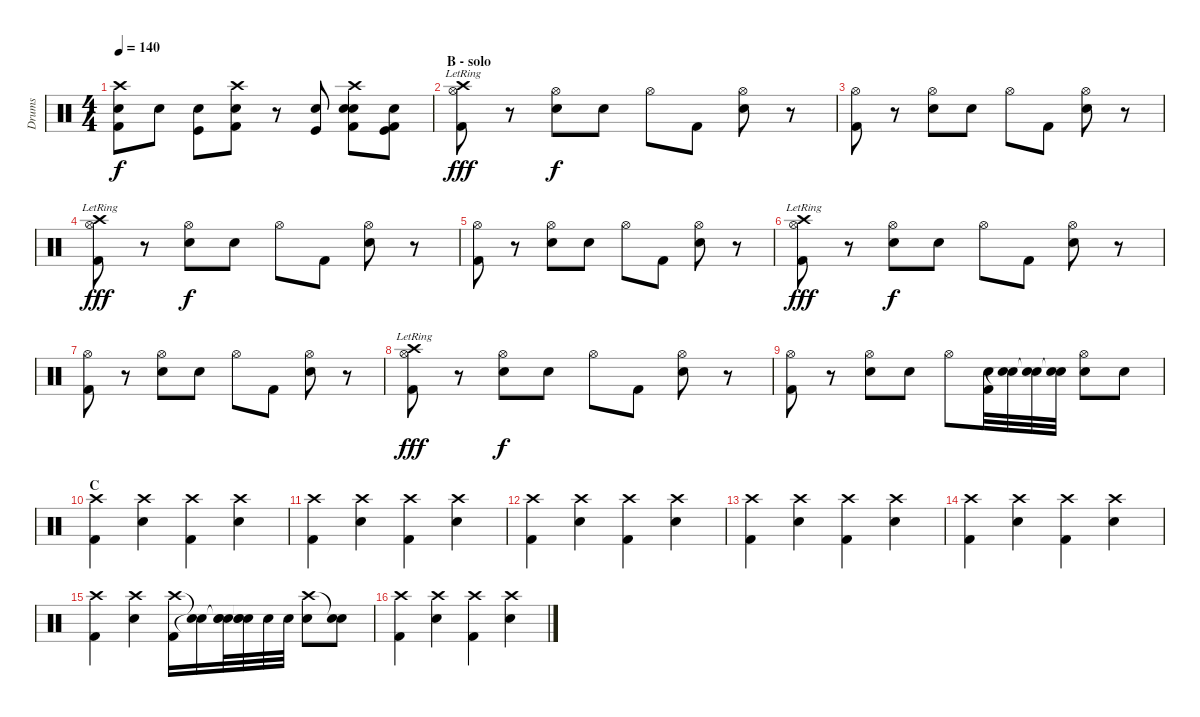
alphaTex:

\track ("Drums" "Drums") {instrument percussion}
\staff {score}
\articulation defaults
\ts (4 4)
\tempo 140
\clef neutral
\ks c
("Crash high (hit)" "Electric Snare (hit)" "Kick (hit) 2").8{dy f} "Electric Snare (hit)".8 ("Kick (hit)" "Electric Snare (hit)").8 ("Crash high (hit)" "Electric Snare (hit)" "Kick (hit) 2").8 r.8 ("Kick (hit)" "Electric Snare (hit)").8 ("Crash high (hit)" "Electric Snare (hit)" "Snare (hit) 2" "Kick (hit) 2").8 ("Electric Snare (hit)" "Kick (hit)" "Kick (hit) 2").8 |
\section ("" "B - solo")
("Hi-Hat (open)" "Crash high (hit)"{lr} "Kick (hit) 2").8{dy fff} r.8 ("Hi-Hat (open)" "Electric Snare (hit)").8{dy f} "Electric Snare (hit)".8 "Hi-Hat (open)".8 "Kick (hit) 2".8 ("Hi-Hat (open)" "Electric Snare (hit)").8 r.8 |
("Hi-Hat (open)" "Kick (hit) 2").8 r.8 ("Hi-Hat (open)" "Electric Snare (hit)").8 "Electric Snare (hit)".8 "Hi-Hat (open)".8 "Kick (hit) 2".8 ("Hi-Hat (open)" "Electric Snare (hit)").8 r.8 |
("Hi-Hat (open)" "Crash high (hit)"{lr} "Kick (hit) 2").8{dy fff} r.8 ("Hi-Hat (open)" "Electric Snare (hit)").8{dy f} "Electric Snare (hit)".8 "Hi-Hat (open)".8 "Kick (hit) 2".8 ("Hi-Hat (open)" "Electric Snare (hit)").8 r.8 |
("Hi-Hat (open)" "Kick (hit) 2").8 r.8 ("Hi-Hat (open)" "Electric Snare (hit)").8 "Electric Snare (hit)".8 "Hi-Hat (open)".8 "Kick (hit) 2".8 ("Hi-Hat (open)" "Electric Snare (hit)").8 r.8 |
("Hi-Hat (open)" "Crash high (hit)"{lr} "Kick (hit) 2").8{dy fff} r.8 ("Hi-Hat (open)" "Electric Snare (hit)").8{dy f} "Electric Snare (hit)".8 "Hi-Hat (open)".8 "Kick (hit) 2".8 ("Hi-Hat (open)" "Electric Snare (hit)").8 r.8 |
("Hi-Hat (open)" "Kick (hit) 2").8 r.8 ("Hi-Hat (open)" "Electric Snare (hit)").8 "Electric Snare (hit)".8 "Hi-Hat (open)".8 "Kick (hit) 2".8 ("Hi-Hat (open)" "Electric Snare (hit)").8 r.8 |
("Hi-Hat (open)" "Crash high (hit)"{lr} "Kick (hit) 2").8{dy fff} r.8 ("Hi-Hat (open)" "Electric Snare (hit)").8{dy f} "Electric Snare (hit)".8 "Hi-Hat (open)".8 "Kick (hit) 2".8 ("Hi-Hat (open)" "Electric Snare (hit)").8 r.8 |
("Hi-Hat (open)" "Kick (hit) 2").8 r.8 ("Hi-Hat (open)" "Electric Snare (hit)").8 "Electric Snare (hit)".8 "Hi-Hat (open)".8 ("Electric Snare (hit)" "Kick (hit) 2").32 ("Electric Snare (hit)" "Snare (hit)"{t}).32 ("Electric Snare (hit)" "Snare (hit)"{t}).32 ("Electric Snare (hit)" "Snare (hit)"{t}).32 ("Hi-Hat (open)" "Electric Snare (hit)").8 "Electric Snare (hit)".8 |
\section ("" "C")
("Crash high (hit)" "Kick (hit) 2").4 ("Crash high (hit)" "Electric Snare (hit)").4 ("Crash high (hit)" "Kick (hit) 2").4 ("Crash high (hit)" "Electric Snare (hit)").4 |
("Crash high (hit)" "Kick (hit) 2").4 ("Crash high (hit)" "Electric Snare (hit)").4 ("Crash high (hit)" "Kick (hit) 2").4 ("Crash high (hit)" "Electric Snare (hit)").4 |
("Crash high (hit)" "Kick (hit) 2").4 ("Crash high (hit)" "Electric Snare (hit)").4 ("Crash high (hit)" "Kick (hit) 2").4 ("Crash high (hit)" "Electric Snare (hit)").4 |
("Crash high (hit)" "Kick (hit) 2").4 ("Crash high (hit)" "Electric Snare (hit)").4 ("Crash high (hit)" "Kick (hit) 2").4 ("Crash high (hit)" "Electric Snare (hit)").4 |
("Crash high (hit)" "Kick (hit) 2").4 ("Crash high (hit)" "Electric Snare (hit)").4 ("Crash high (hit)" "Kick (hit) 2").4 ("Crash high (hit)" "Electric Snare (hit)").4 |
("Crash high (hit)" "Kick (hit) 2").4 ("Crash high (hit)" "Electric Snare (hit)").4 ("Crash high (hit)" "Kick (hit) 2").16 ("Snare (hit)"{t} "Snare (hit)"{t}).16 ("Snare (hit)"{t} "Electric Snare (hit)" "Snare (hit)").32 ("Snare (hit)"{t} "Electric Snare (hit)" "Snare (hit)"{t}).32 "Electric Snare (hit)".32 "Electric Snare (hit)".32 ("Crash high (hit)" "Electric Snare (hit)").8 ("Snare (hit)"{t} "Electric Snare (hit)").8 |
("Crash high (hit)" "Kick (hit) 2").4 ("Crash high (hit)" "Electric Snare (hit)").4 ("Crash high (hit)" "Kick (hit) 2").4 ("Crash high (hit)" "Electric Snare (hit)").4
